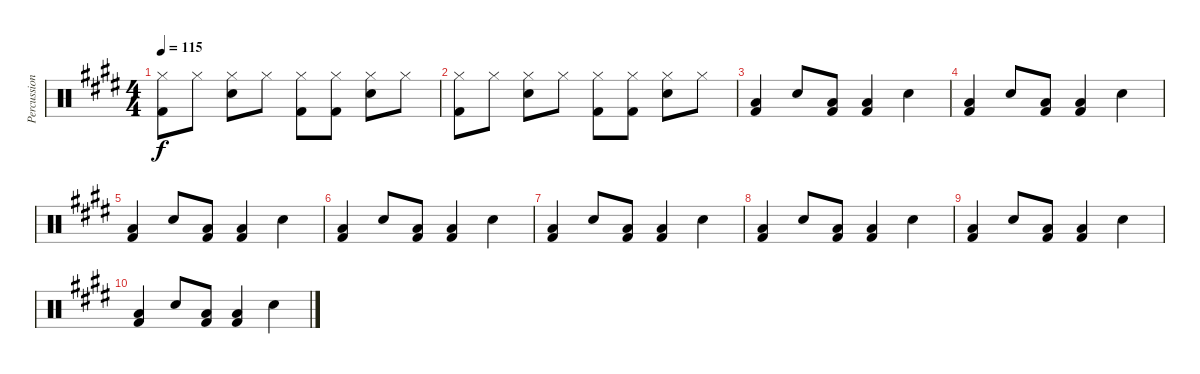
\track ("Percussion" "Percussion") {instrument percussion}
\staff {score}
\articulation defaults
\ts (4 4)
\tempo 115
\clef neutral
\ks e
("Kick (hit) 2" "Hi-Hat (closed)").8{dy f} "Hi-Hat (closed)".8 ("Electric Snare (hit)" "Hi-Hat (closed)").8 "Hi-Hat (closed)".8 ("Kick (hit) 2" "Hi-Hat (closed)").8 ("Kick (hit) 2" "Hi-Hat (closed)").8 ("Electric Snare (hit)" "Hi-Hat (closed)").8 "Hi-Hat (closed)".8 |
("Kick (hit) 2" "Hi-Hat (closed)").8 "Hi-Hat (closed)".8 ("Electric Snare (hit)" "Hi-Hat (closed)").8 "Hi-Hat (closed)".8 ("Kick (hit) 2" "Hi-Hat (closed)").8 ("Kick (hit) 2" "Hi-Hat (closed)").8 ("Electric Snare (hit)" "Hi-Hat (closed)").8 "Hi-Hat (closed)".8 |
("Low Tom (hit)" "Kick (hit) 2").4 "Electric Snare (hit)".8 ("Low Tom (hit)" "Kick (hit) 2").8 ("Low Tom (hit)" "Kick (hit) 2").4 "Electric Snare (hit)".4 |
("Low Tom (hit)" "Kick (hit) 2").4 "Electric Snare (hit)".8 ("Low Tom (hit)" "Kick (hit) 2").8 ("Low Tom (hit)" "Kick (hit) 2").4 "Electric Snare (hit)".4 |
("Low Tom (hit)" "Kick (hit) 2").4 "Electric Snare (hit)".8 ("Low Tom (hit)" "Kick (hit) 2").8 ("Low Tom (hit)" "Kick (hit) 2").4 "Electric Snare (hit)".4 |
("Low Tom (hit)" "Kick (hit) 2").4 "Electric Snare (hit)".8 ("Low Tom (hit)" "Kick (hit) 2").8 ("Low Tom (hit)" "Kick (hit) 2").4 "Electric Snare (hit)".4 |
("Low Tom (hit)" "Kick (hit) 2").4 "Electric Snare (hit)".8 ("Low Tom (hit)" "Kick (hit) 2").8 ("Low Tom (hit)" "Kick (hit) 2").4 "Electric Snare (hit)".4 |
("Low Tom (hit)" "Kick (hit) 2").4 "Electric Snare (hit)".8 ("Low Tom (hit)" "Kick (hit) 2").8 ("Low Tom (hit)" "Kick (hit) 2").4 "Electric Snare (hit)".4 |
("Low Tom (hit)" "Kick (hit) 2").4 "Electric Snare (hit)".8 ("Low Tom (hit)" "Kick (hit) 2").8 ("Low Tom (hit)" "Kick (hit) 2").4 "Electric Snare (hit)".4 |
("Low Tom (hit)" "Kick (hit) 2").4 "Electric Snare (hit)".8 ("Low Tom (hit)" "Kick (hit) 2").8 ("Low Tom (hit)" "Kick (hit) 2").4 "Electric Snare (hit)".4
